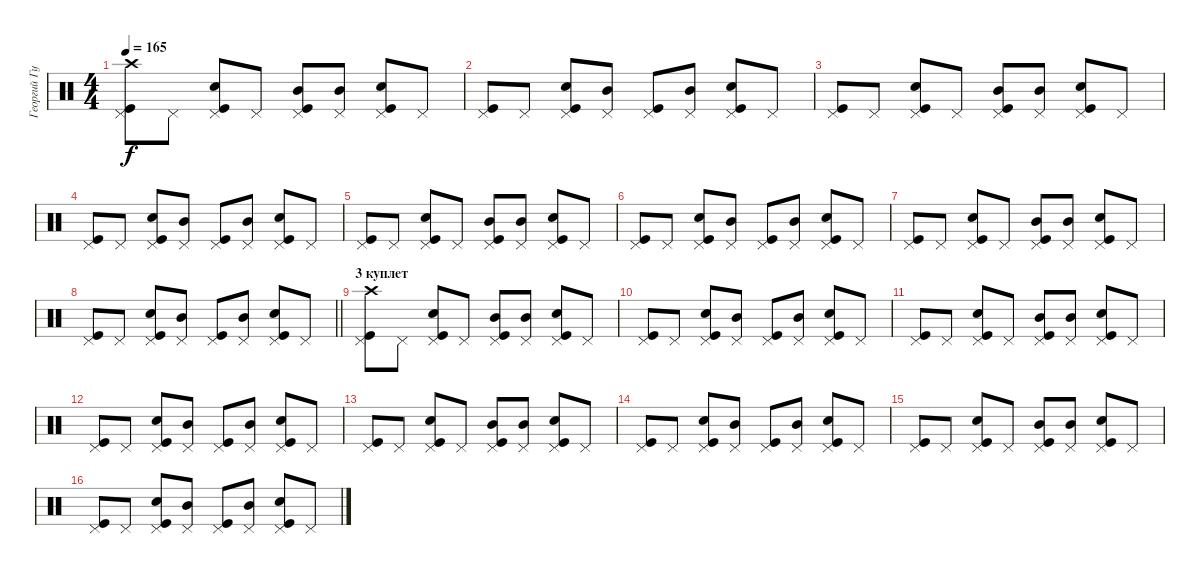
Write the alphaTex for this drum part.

\track ("Георгий Гурьянов" "Георгий Гу") {instrument percussion}
\staff {score}
\articulation defaults
\ts (4 4)
\tempo 165
\clef neutral
\ks c
("Pedal Hi-Hat (hit)" "Kick (hit)" "Crash high (hit)").8{dy f} "Pedal Hi-Hat (hit)".8 ("Pedal Hi-Hat (hit)" "Kick (hit)" "Snare (hit) 2").8 "Pedal Hi-Hat (hit)".8 ("Pedal Hi-Hat (hit)" "Kick (hit)" "Mid Tom (hit)").8 ("Pedal Hi-Hat (hit)" "Mid Tom (hit)").8 ("Pedal Hi-Hat (hit)" "Kick (hit)" "Snare (hit) 2").8 "Pedal Hi-Hat (hit)".8 |
("Pedal Hi-Hat (hit)" "Kick (hit)").8 "Pedal Hi-Hat (hit)".8 ("Pedal Hi-Hat (hit)" "Kick (hit)" "Snare (hit) 2").8 ("Pedal Hi-Hat (hit)" "Mid Tom (hit)").8 ("Pedal Hi-Hat (hit)" "Kick (hit)").8 ("Pedal Hi-Hat (hit)" "Mid Tom (hit)").8 ("Pedal Hi-Hat (hit)" "Kick (hit)" "Snare (hit) 2").8 "Pedal Hi-Hat (hit)".8 |
("Pedal Hi-Hat (hit)" "Kick (hit)").8 "Pedal Hi-Hat (hit)".8 ("Pedal Hi-Hat (hit)" "Kick (hit)" "Snare (hit) 2").8 "Pedal Hi-Hat (hit)".8 ("Pedal Hi-Hat (hit)" "Kick (hit)" "Mid Tom (hit)").8 ("Pedal Hi-Hat (hit)" "Mid Tom (hit)").8 ("Pedal Hi-Hat (hit)" "Kick (hit)" "Snare (hit) 2").8 "Pedal Hi-Hat (hit)".8 |
("Pedal Hi-Hat (hit)" "Kick (hit)").8 "Pedal Hi-Hat (hit)".8 ("Pedal Hi-Hat (hit)" "Kick (hit)" "Snare (hit) 2").8 ("Pedal Hi-Hat (hit)" "Mid Tom (hit)").8 ("Pedal Hi-Hat (hit)" "Kick (hit)").8 ("Pedal Hi-Hat (hit)" "Mid Tom (hit)").8 ("Pedal Hi-Hat (hit)" "Kick (hit)" "Snare (hit) 2").8 "Pedal Hi-Hat (hit)".8 |
("Pedal Hi-Hat (hit)" "Kick (hit)").8 "Pedal Hi-Hat (hit)".8 ("Pedal Hi-Hat (hit)" "Kick (hit)" "Snare (hit) 2").8 "Pedal Hi-Hat (hit)".8 ("Pedal Hi-Hat (hit)" "Kick (hit)" "Mid Tom (hit)").8 ("Pedal Hi-Hat (hit)" "Mid Tom (hit)").8 ("Pedal Hi-Hat (hit)" "Kick (hit)" "Snare (hit) 2").8 "Pedal Hi-Hat (hit)".8 |
("Pedal Hi-Hat (hit)" "Kick (hit)").8 "Pedal Hi-Hat (hit)".8 ("Pedal Hi-Hat (hit)" "Kick (hit)" "Snare (hit) 2").8 ("Pedal Hi-Hat (hit)" "Mid Tom (hit)").8 ("Pedal Hi-Hat (hit)" "Kick (hit)").8 ("Pedal Hi-Hat (hit)" "Mid Tom (hit)").8 ("Pedal Hi-Hat (hit)" "Kick (hit)" "Snare (hit) 2").8 "Pedal Hi-Hat (hit)".8 |
("Pedal Hi-Hat (hit)" "Kick (hit)").8 "Pedal Hi-Hat (hit)".8 ("Pedal Hi-Hat (hit)" "Kick (hit)" "Snare (hit) 2").8 "Pedal Hi-Hat (hit)".8 ("Pedal Hi-Hat (hit)" "Kick (hit)" "Mid Tom (hit)").8 ("Pedal Hi-Hat (hit)" "Mid Tom (hit)").8 ("Pedal Hi-Hat (hit)" "Kick (hit)" "Snare (hit) 2").8 "Pedal Hi-Hat (hit)".8 |
\barLineRight lightlight
("Pedal Hi-Hat (hit)" "Kick (hit)").8 "Pedal Hi-Hat (hit)".8 ("Pedal Hi-Hat (hit)" "Kick (hit)" "Snare (hit) 2").8 ("Pedal Hi-Hat (hit)" "Mid Tom (hit)").8 ("Pedal Hi-Hat (hit)" "Kick (hit)").8 ("Pedal Hi-Hat (hit)" "Mid Tom (hit)").8 ("Pedal Hi-Hat (hit)" "Kick (hit)" "Snare (hit) 2").8 "Pedal Hi-Hat (hit)".8 |
\section ("" "3 куплет")
("Pedal Hi-Hat (hit)" "Kick (hit)" "Crash high (hit)").8 "Pedal Hi-Hat (hit)".8 ("Pedal Hi-Hat (hit)" "Kick (hit)" "Snare (hit) 2").8 "Pedal Hi-Hat (hit)".8 ("Pedal Hi-Hat (hit)" "Kick (hit)" "Mid Tom (hit)").8 ("Pedal Hi-Hat (hit)" "Mid Tom (hit)").8 ("Pedal Hi-Hat (hit)" "Kick (hit)" "Snare (hit) 2").8 "Pedal Hi-Hat (hit)".8 |
("Pedal Hi-Hat (hit)" "Kick (hit)").8 "Pedal Hi-Hat (hit)".8 ("Pedal Hi-Hat (hit)" "Kick (hit)" "Snare (hit) 2").8 ("Pedal Hi-Hat (hit)" "Mid Tom (hit)").8 ("Pedal Hi-Hat (hit)" "Kick (hit)").8 ("Pedal Hi-Hat (hit)" "Mid Tom (hit)").8 ("Pedal Hi-Hat (hit)" "Kick (hit)" "Snare (hit) 2").8 "Pedal Hi-Hat (hit)".8 |
("Pedal Hi-Hat (hit)" "Kick (hit)").8 "Pedal Hi-Hat (hit)".8 ("Pedal Hi-Hat (hit)" "Kick (hit)" "Snare (hit) 2").8 "Pedal Hi-Hat (hit)".8 ("Pedal Hi-Hat (hit)" "Kick (hit)" "Mid Tom (hit)").8 ("Pedal Hi-Hat (hit)" "Mid Tom (hit)").8 ("Pedal Hi-Hat (hit)" "Kick (hit)" "Snare (hit) 2").8 "Pedal Hi-Hat (hit)".8 |
("Pedal Hi-Hat (hit)" "Kick (hit)").8 "Pedal Hi-Hat (hit)".8 ("Pedal Hi-Hat (hit)" "Kick (hit)" "Snare (hit) 2").8 ("Pedal Hi-Hat (hit)" "Mid Tom (hit)").8 ("Pedal Hi-Hat (hit)" "Kick (hit)").8 ("Pedal Hi-Hat (hit)" "Mid Tom (hit)").8 ("Pedal Hi-Hat (hit)" "Kick (hit)" "Snare (hit) 2").8 "Pedal Hi-Hat (hit)".8 |
("Pedal Hi-Hat (hit)" "Kick (hit)").8 "Pedal Hi-Hat (hit)".8 ("Pedal Hi-Hat (hit)" "Kick (hit)" "Snare (hit) 2").8 "Pedal Hi-Hat (hit)".8 ("Pedal Hi-Hat (hit)" "Kick (hit)" "Mid Tom (hit)").8 ("Pedal Hi-Hat (hit)" "Mid Tom (hit)").8 ("Pedal Hi-Hat (hit)" "Kick (hit)" "Snare (hit) 2").8 "Pedal Hi-Hat (hit)".8 |
("Pedal Hi-Hat (hit)" "Kick (hit)").8 "Pedal Hi-Hat (hit)".8 ("Pedal Hi-Hat (hit)" "Kick (hit)" "Snare (hit) 2").8 ("Pedal Hi-Hat (hit)" "Mid Tom (hit)").8 ("Pedal Hi-Hat (hit)" "Kick (hit)").8 ("Pedal Hi-Hat (hit)" "Mid Tom (hit)").8 ("Pedal Hi-Hat (hit)" "Kick (hit)" "Snare (hit) 2").8 "Pedal Hi-Hat (hit)".8 |
("Pedal Hi-Hat (hit)" "Kick (hit)").8 "Pedal Hi-Hat (hit)".8 ("Pedal Hi-Hat (hit)" "Kick (hit)" "Snare (hit) 2").8 "Pedal Hi-Hat (hit)".8 ("Pedal Hi-Hat (hit)" "Kick (hit)" "Mid Tom (hit)").8 ("Pedal Hi-Hat (hit)" "Mid Tom (hit)").8 ("Pedal Hi-Hat (hit)" "Kick (hit)" "Snare (hit) 2").8 "Pedal Hi-Hat (hit)".8 |
("Pedal Hi-Hat (hit)" "Kick (hit)").8 "Pedal Hi-Hat (hit)".8 ("Pedal Hi-Hat (hit)" "Kick (hit)" "Snare (hit) 2").8 ("Pedal Hi-Hat (hit)" "Mid Tom (hit)").8 ("Pedal Hi-Hat (hit)" "Kick (hit)").8 ("Pedal Hi-Hat (hit)" "Mid Tom (hit)").8 ("Pedal Hi-Hat (hit)" "Kick (hit)" "Snare (hit) 2").8 "Pedal Hi-Hat (hit)".8
